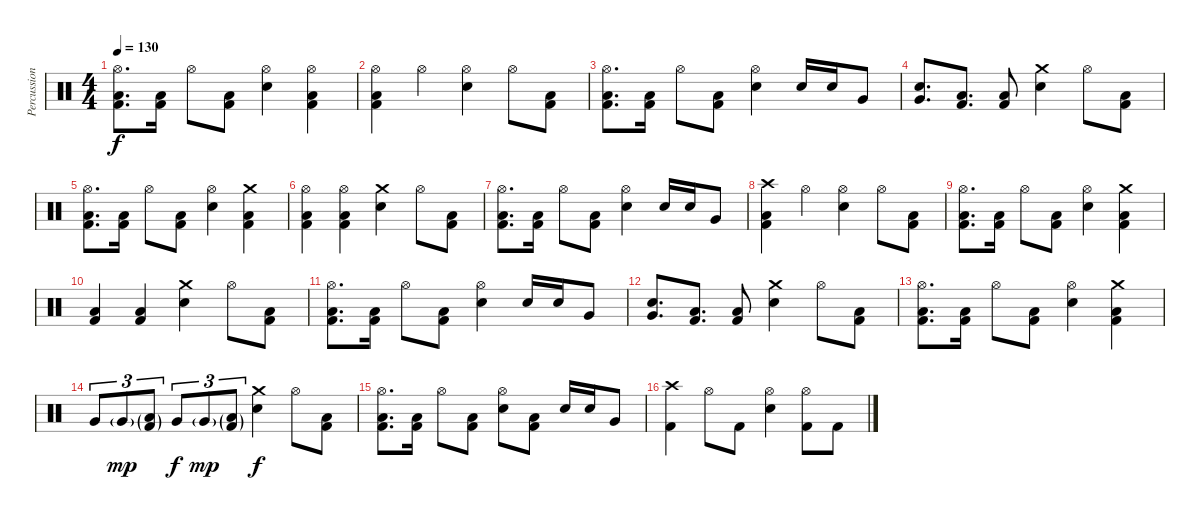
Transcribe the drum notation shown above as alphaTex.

\track ("Percussion" "Percussion") {instrument percussion}
\staff {score}
\articulation defaults
\ts (4 4)
\tempo 130
\clef neutral
\ks c
("Hi-Hat (open)" "Low Floor Tom (hit)" "Kick (hit) 2").8{d dy f} ("Low Floor Tom (hit)" "Kick (hit) 2").16 "Hi-Hat (open)".8 ("Low Floor Tom (hit)" "Kick (hit) 2").8 ("Hi-Hat (open)" "Electric Snare (hit)").4 ("Hi-Hat (open)" "Low Floor Tom (hit)" "Kick (hit) 2").4 |
("Hi-Hat (open)" "Low Floor Tom (hit)" "Kick (hit) 2").4 "Hi-Hat (open)".4 ("Hi-Hat (open)" "Electric Snare (hit)").4 "Hi-Hat (open)".8 ("Low Floor Tom (hit)" "Kick (hit) 2").8 |
("Hi-Hat (open)" "Low Floor Tom (hit)" "Kick (hit) 2").8{d} ("Low Floor Tom (hit)" "Kick (hit) 2").16 "Hi-Hat (open)".8 ("Low Floor Tom (hit)" "Kick (hit) 2").8 ("Hi-Hat (open)" "Electric Snare (hit)").4 "Electric Snare (hit)".16 "Electric Snare (hit)".16 "Very Low Tom (hit)".8 |
("Very Low Tom (hit)" "Electric Snare (hit)").8{d} ("Low Floor Tom (hit)" "Kick (hit) 2").8{d} ("Low Floor Tom (hit)" "Kick (hit) 2").8 ("Crash medium (hit)" "Electric Snare (hit)").4 "Hi-Hat (open)".8 ("Low Floor Tom (hit)" "Kick (hit) 2").8 |
("Hi-Hat (open)" "Low Floor Tom (hit)" "Kick (hit) 2").8{d} ("Low Floor Tom (hit)" "Kick (hit) 2").16 "Hi-Hat (open)".8 ("Low Floor Tom (hit)" "Kick (hit) 2").8 ("Hi-Hat (open)" "Electric Snare (hit)").4 ("Crash medium (hit)" "Low Floor Tom (hit)" "Kick (hit) 2").4 |
("Hi-Hat (open)" "Low Floor Tom (hit)" "Kick (hit) 2").4 ("Hi-Hat (open)" "Low Floor Tom (hit)" "Kick (hit) 2").4 ("Crash medium (hit)" "Electric Snare (hit)").4 "Hi-Hat (open)".8 ("Low Floor Tom (hit)" "Kick (hit) 2").8 |
("Hi-Hat (open)" "Low Floor Tom (hit)" "Kick (hit) 2").8{d} ("Low Floor Tom (hit)" "Kick (hit) 2").16 "Hi-Hat (open)".8 ("Low Floor Tom (hit)" "Kick (hit) 2").8 ("Hi-Hat (open)" "Electric Snare (hit)").4 "Electric Snare (hit)".16 "Electric Snare (hit)".16 "Very Low Tom (hit)".8 |
("Crash high (hit)" "Low Floor Tom (hit)" "Kick (hit) 2").4 "Hi-Hat (open)".4 ("Hi-Hat (open)" "Electric Snare (hit)").4 "Hi-Hat (open)".8 ("Low Floor Tom (hit)" "Kick (hit) 2").8 |
("Hi-Hat (open)" "Low Floor Tom (hit)" "Kick (hit) 2").8{d} ("Low Floor Tom (hit)" "Kick (hit) 2").16 "Hi-Hat (open)".8 ("Low Floor Tom (hit)" "Kick (hit) 2").8 ("Hi-Hat (open)" "Electric Snare (hit)").4 ("Crash medium (hit)" "Low Floor Tom (hit)" "Kick (hit) 2").4 |
("Low Floor Tom (hit)" "Kick (hit) 2").4 ("Low Floor Tom (hit)" "Kick (hit) 2").4 ("Crash medium (hit)" "Electric Snare (hit)").4 "Hi-Hat (open)".8 ("Low Floor Tom (hit)" "Kick (hit) 2").8 |
("Hi-Hat (open)" "Low Floor Tom (hit)" "Kick (hit) 2").8{d} ("Low Floor Tom (hit)" "Kick (hit) 2").16 "Hi-Hat (open)".8 ("Low Floor Tom (hit)" "Kick (hit) 2").8 ("Hi-Hat (open)" "Electric Snare (hit)").4 "Electric Snare (hit)".16 "Electric Snare (hit)".16 "Very Low Tom (hit)".8 |
("Very Low Tom (hit)" "Electric Snare (hit)").8{d} ("Low Floor Tom (hit)" "Kick (hit) 2").8{d} ("Low Floor Tom (hit)" "Kick (hit) 2").8 ("Crash medium (hit)" "Electric Snare (hit)").4 "Hi-Hat (open)".8 ("Low Floor Tom (hit)" "Kick (hit) 2").8 |
("Hi-Hat (open)" "Low Floor Tom (hit)" "Kick (hit) 2").8{d} ("Low Floor Tom (hit)" "Kick (hit) 2").16 "Hi-Hat (open)".8 ("Low Floor Tom (hit)" "Kick (hit) 2").8 ("Hi-Hat (open)" "Electric Snare (hit)").4 ("Crash medium (hit)" "Low Floor Tom (hit)" "Kick (hit) 2").4 |
"Very Low Tom (hit)".8{tu (3 2)} "Very Low Tom (hit)"{g}.8{tu (3 2) dy mp} ("Low Floor Tom (hit)"{g} "Kick (hit) 2"{g}).8{tu (3 2)} "Very Low Tom (hit)".8{tu (3 2) dy f} "Very Low Tom (hit)"{g}.8{tu (3 2) dy mp} ("Low Floor Tom (hit)"{g} "Kick (hit) 2"{g}).8{tu (3 2)} ("Crash medium (hit)" "Electric Snare (hit)").4{dy f} "Hi-Hat (open)".8 ("Low Floor Tom (hit)" "Kick (hit) 2").8 |
("Hi-Hat (open)" "Low Floor Tom (hit)" "Kick (hit) 2").8{d} ("Low Floor Tom (hit)" "Kick (hit) 2").16 "Hi-Hat (open)".8 ("Low Floor Tom (hit)" "Kick (hit) 2").8 ("Hi-Hat (open)" "Electric Snare (hit)").8 ("Low Floor Tom (hit)" "Kick (hit) 2").8 "Electric Snare (hit)".16 "Electric Snare (hit)".16 "Very Low Tom (hit)".8 |
("Crash high (hit)" "Kick (hit) 2").4 "Hi-Hat (open)".8 "Kick (hit) 2".8 ("Hi-Hat (open)" "Electric Snare (hit)").4 ("Hi-Hat (open)" "Kick (hit) 2").8 "Kick (hit) 2".8
